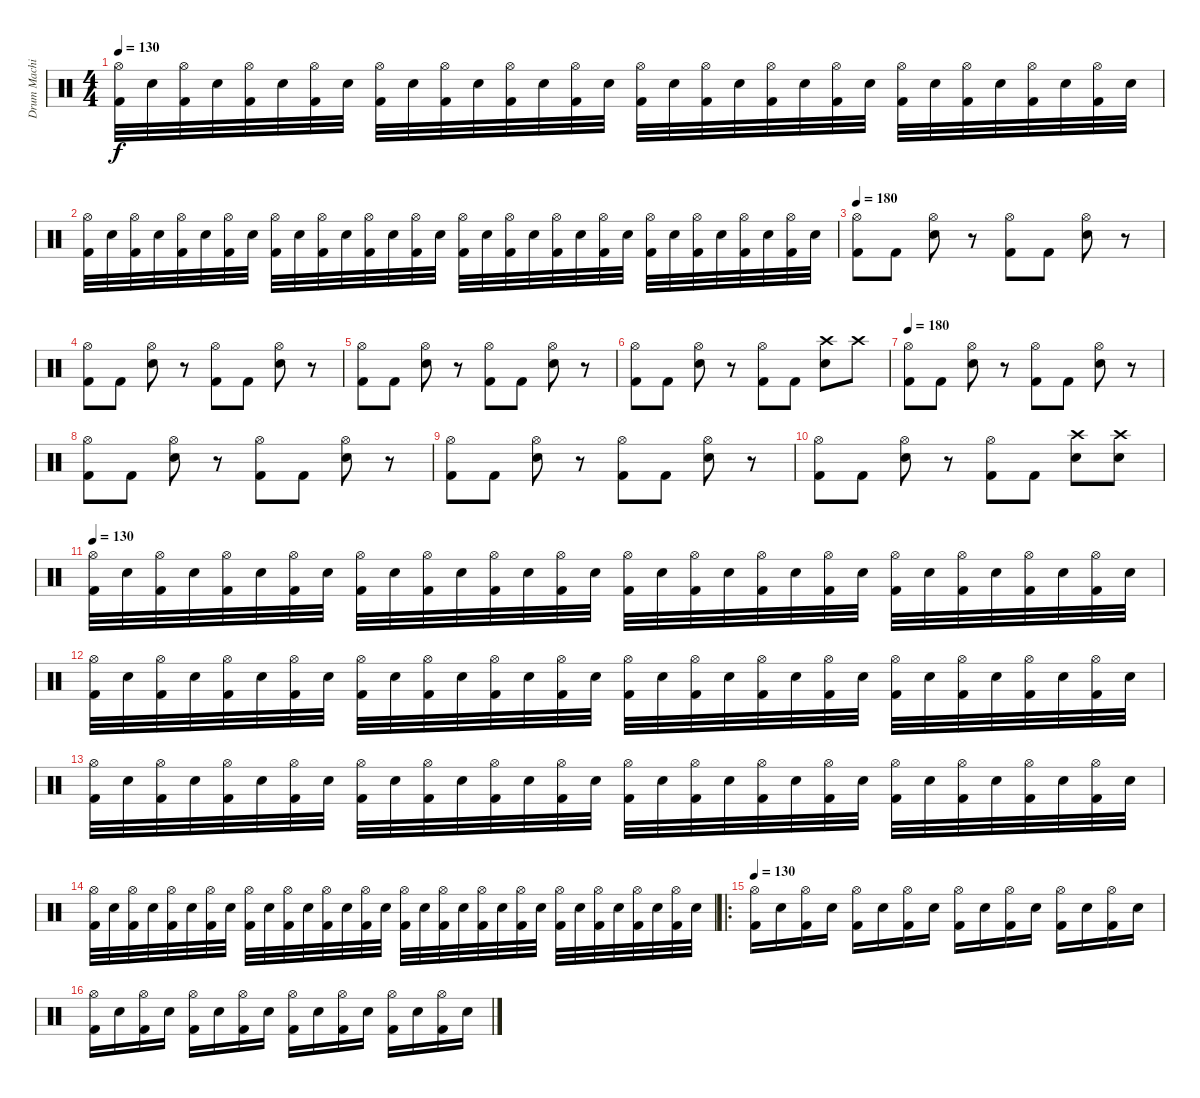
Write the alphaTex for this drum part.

\track ("Drum Machine" "Drum Machi") {instrument percussion}
\staff {score}
\articulation defaults
\ts (4 4)
\tempo 130
\clef neutral
\ks c
("Hi-Hat (open)" "Kick (hit) 2").32{dy f} "Snare (hit) 2".32 ("Hi-Hat (open)" "Kick (hit) 2").32 "Snare (hit) 2".32 ("Hi-Hat (open)" "Kick (hit) 2").32 "Snare (hit) 2".32 ("Hi-Hat (open)" "Kick (hit) 2").32 "Snare (hit) 2".32 ("Hi-Hat (open)" "Kick (hit) 2").32 "Snare (hit) 2".32 ("Hi-Hat (open)" "Kick (hit) 2").32 "Snare (hit) 2".32 ("Hi-Hat (open)" "Kick (hit) 2").32 "Snare (hit) 2".32 ("Hi-Hat (open)" "Kick (hit) 2").32 "Snare (hit) 2".32 ("Hi-Hat (open)" "Kick (hit) 2").32 "Snare (hit) 2".32 ("Hi-Hat (open)" "Kick (hit) 2").32 "Snare (hit) 2".32 ("Hi-Hat (open)" "Kick (hit) 2").32 "Snare (hit) 2".32 ("Hi-Hat (open)" "Kick (hit) 2").32 "Snare (hit) 2".32 ("Hi-Hat (open)" "Kick (hit) 2").32 "Snare (hit) 2".32 ("Hi-Hat (open)" "Kick (hit) 2").32 "Snare (hit) 2".32 ("Hi-Hat (open)" "Kick (hit) 2").32 "Snare (hit) 2".32 ("Hi-Hat (open)" "Kick (hit) 2").32 "Snare (hit) 2".32 |
("Hi-Hat (open)" "Kick (hit) 2").32 "Snare (hit) 2".32 ("Hi-Hat (open)" "Kick (hit) 2").32 "Snare (hit) 2".32 ("Hi-Hat (open)" "Kick (hit) 2").32 "Snare (hit) 2".32 ("Hi-Hat (open)" "Kick (hit) 2").32 "Snare (hit) 2".32 ("Hi-Hat (open)" "Kick (hit) 2").32 "Snare (hit) 2".32 ("Hi-Hat (open)" "Kick (hit) 2").32 "Snare (hit) 2".32 ("Hi-Hat (open)" "Kick (hit) 2").32 "Snare (hit) 2".32 ("Hi-Hat (open)" "Kick (hit) 2").32 "Snare (hit) 2".32 ("Hi-Hat (open)" "Kick (hit) 2").32 "Snare (hit) 2".32 ("Hi-Hat (open)" "Kick (hit) 2").32 "Snare (hit) 2".32 ("Hi-Hat (open)" "Kick (hit) 2").32 "Snare (hit) 2".32 ("Hi-Hat (open)" "Kick (hit) 2").32 "Snare (hit) 2".32 ("Hi-Hat (open)" "Kick (hit) 2").32 "Snare (hit) 2".32 ("Hi-Hat (open)" "Kick (hit) 2").32 "Snare (hit) 2".32 ("Hi-Hat (open)" "Kick (hit) 2").32 "Snare (hit) 2".32 ("Hi-Hat (open)" "Kick (hit) 2").32 "Snare (hit) 2".32 |
\tempo 180
("Hi-Hat (open)" "Kick (hit) 2").8 "Kick (hit) 2".8 ("Hi-Hat (open)" "Snare (hit) 2").8 r.8 ("Hi-Hat (open)" "Kick (hit) 2").8 "Kick (hit) 2".8 ("Hi-Hat (open)" "Snare (hit) 2").8 r.8 |
("Hi-Hat (open)" "Kick (hit) 2").8 "Kick (hit) 2".8 ("Hi-Hat (open)" "Snare (hit) 2").8 r.8 ("Hi-Hat (open)" "Kick (hit) 2").8 "Kick (hit) 2".8 ("Hi-Hat (open)" "Snare (hit) 2").8 r.8 |
("Hi-Hat (open)" "Kick (hit) 2").8 "Kick (hit) 2".8 ("Hi-Hat (open)" "Snare (hit) 2").8 r.8 ("Hi-Hat (open)" "Kick (hit) 2").8 "Kick (hit) 2".8 ("Hi-Hat (open)" "Snare (hit) 2").8 r.8 |
("Hi-Hat (open)" "Kick (hit) 2").8 "Kick (hit) 2".8 ("Hi-Hat (open)" "Snare (hit) 2").8 r.8 ("Hi-Hat (open)" "Kick (hit) 2").8 "Kick (hit) 2".8 ("Crash high (hit)" "Snare (hit) 2").8 "Crash high (hit)".8 |
\tempo 180
("Hi-Hat (open)" "Kick (hit) 2").8 "Kick (hit) 2".8 ("Hi-Hat (open)" "Snare (hit) 2").8 r.8 ("Hi-Hat (open)" "Kick (hit) 2").8 "Kick (hit) 2".8 ("Hi-Hat (open)" "Snare (hit) 2").8 r.8 |
("Hi-Hat (open)" "Kick (hit) 2").8 "Kick (hit) 2".8 ("Hi-Hat (open)" "Snare (hit) 2").8 r.8 ("Hi-Hat (open)" "Kick (hit) 2").8 "Kick (hit) 2".8 ("Hi-Hat (open)" "Snare (hit) 2").8 r.8 |
("Hi-Hat (open)" "Kick (hit) 2").8 "Kick (hit) 2".8 ("Hi-Hat (open)" "Snare (hit) 2").8 r.8 ("Hi-Hat (open)" "Kick (hit) 2").8 "Kick (hit) 2".8 ("Hi-Hat (open)" "Snare (hit) 2").8 r.8 |
("Hi-Hat (open)" "Kick (hit) 2").8 "Kick (hit) 2".8 ("Hi-Hat (open)" "Snare (hit) 2").8 r.8 ("Hi-Hat (open)" "Kick (hit) 2").8 "Kick (hit) 2".8 ("Crash high (hit)" "Snare (hit) 2").8 ("Crash high (hit)" "Snare (hit) 2").8 |
\tempo 130
("Hi-Hat (open)" "Kick (hit) 2").32 "Snare (hit) 2".32 ("Hi-Hat (open)" "Kick (hit) 2").32 "Snare (hit) 2".32 ("Hi-Hat (open)" "Kick (hit) 2").32 "Snare (hit) 2".32 ("Hi-Hat (open)" "Kick (hit) 2").32 "Snare (hit) 2".32 ("Hi-Hat (open)" "Kick (hit) 2").32 "Snare (hit) 2".32 ("Hi-Hat (open)" "Kick (hit) 2").32 "Snare (hit) 2".32 ("Hi-Hat (open)" "Kick (hit) 2").32 "Snare (hit) 2".32 ("Hi-Hat (open)" "Kick (hit) 2").32 "Snare (hit) 2".32 ("Hi-Hat (open)" "Kick (hit) 2").32 "Snare (hit) 2".32 ("Hi-Hat (open)" "Kick (hit) 2").32 "Snare (hit) 2".32 ("Hi-Hat (open)" "Kick (hit) 2").32 "Snare (hit) 2".32 ("Hi-Hat (open)" "Kick (hit) 2").32 "Snare (hit) 2".32 ("Hi-Hat (open)" "Kick (hit) 2").32 "Snare (hit) 2".32 ("Hi-Hat (open)" "Kick (hit) 2").32 "Snare (hit) 2".32 ("Hi-Hat (open)" "Kick (hit) 2").32 "Snare (hit) 2".32 ("Hi-Hat (open)" "Kick (hit) 2").32 "Snare (hit) 2".32 |
("Hi-Hat (open)" "Kick (hit) 2").32 "Snare (hit) 2".32 ("Hi-Hat (open)" "Kick (hit) 2").32 "Snare (hit) 2".32 ("Hi-Hat (open)" "Kick (hit) 2").32 "Snare (hit) 2".32 ("Hi-Hat (open)" "Kick (hit) 2").32 "Snare (hit) 2".32 ("Hi-Hat (open)" "Kick (hit) 2").32 "Snare (hit) 2".32 ("Hi-Hat (open)" "Kick (hit) 2").32 "Snare (hit) 2".32 ("Hi-Hat (open)" "Kick (hit) 2").32 "Snare (hit) 2".32 ("Hi-Hat (open)" "Kick (hit) 2").32 "Snare (hit) 2".32 ("Hi-Hat (open)" "Kick (hit) 2").32 "Snare (hit) 2".32 ("Hi-Hat (open)" "Kick (hit) 2").32 "Snare (hit) 2".32 ("Hi-Hat (open)" "Kick (hit) 2").32 "Snare (hit) 2".32 ("Hi-Hat (open)" "Kick (hit) 2").32 "Snare (hit) 2".32 ("Hi-Hat (open)" "Kick (hit) 2").32 "Snare (hit) 2".32 ("Hi-Hat (open)" "Kick (hit) 2").32 "Snare (hit) 2".32 ("Hi-Hat (open)" "Kick (hit) 2").32 "Snare (hit) 2".32 ("Hi-Hat (open)" "Kick (hit) 2").32 "Snare (hit) 2".32 |
("Hi-Hat (open)" "Kick (hit) 2").32 "Snare (hit) 2".32 ("Hi-Hat (open)" "Kick (hit) 2").32 "Snare (hit) 2".32 ("Hi-Hat (open)" "Kick (hit) 2").32 "Snare (hit) 2".32 ("Hi-Hat (open)" "Kick (hit) 2").32 "Snare (hit) 2".32 ("Hi-Hat (open)" "Kick (hit) 2").32 "Snare (hit) 2".32 ("Hi-Hat (open)" "Kick (hit) 2").32 "Snare (hit) 2".32 ("Hi-Hat (open)" "Kick (hit) 2").32 "Snare (hit) 2".32 ("Hi-Hat (open)" "Kick (hit) 2").32 "Snare (hit) 2".32 ("Hi-Hat (open)" "Kick (hit) 2").32 "Snare (hit) 2".32 ("Hi-Hat (open)" "Kick (hit) 2").32 "Snare (hit) 2".32 ("Hi-Hat (open)" "Kick (hit) 2").32 "Snare (hit) 2".32 ("Hi-Hat (open)" "Kick (hit) 2").32 "Snare (hit) 2".32 ("Hi-Hat (open)" "Kick (hit) 2").32 "Snare (hit) 2".32 ("Hi-Hat (open)" "Kick (hit) 2").32 "Snare (hit) 2".32 ("Hi-Hat (open)" "Kick (hit) 2").32 "Snare (hit) 2".32 ("Hi-Hat (open)" "Kick (hit) 2").32 "Snare (hit) 2".32 |
("Hi-Hat (open)" "Kick (hit) 2").32 "Snare (hit) 2".32 ("Hi-Hat (open)" "Kick (hit) 2").32 "Snare (hit) 2".32 ("Hi-Hat (open)" "Kick (hit) 2").32 "Snare (hit) 2".32 ("Hi-Hat (open)" "Kick (hit) 2").32 "Snare (hit) 2".32 ("Hi-Hat (open)" "Kick (hit) 2").32 "Snare (hit) 2".32 ("Hi-Hat (open)" "Kick (hit) 2").32 "Snare (hit) 2".32 ("Hi-Hat (open)" "Kick (hit) 2").32 "Snare (hit) 2".32 ("Hi-Hat (open)" "Kick (hit) 2").32 "Snare (hit) 2".32 ("Hi-Hat (open)" "Kick (hit) 2").32 "Snare (hit) 2".32 ("Hi-Hat (open)" "Kick (hit) 2").32 "Snare (hit) 2".32 ("Hi-Hat (open)" "Kick (hit) 2").32 "Snare (hit) 2".32 ("Hi-Hat (open)" "Kick (hit) 2").32 "Snare (hit) 2".32 ("Hi-Hat (open)" "Kick (hit) 2").32 "Snare (hit) 2".32 ("Hi-Hat (open)" "Kick (hit) 2").32 "Snare (hit) 2".32 ("Hi-Hat (open)" "Kick (hit) 2").32 "Snare (hit) 2".32 ("Hi-Hat (open)" "Kick (hit) 2").32 "Snare (hit) 2".32 |
\ro
\tempo 130
("Hi-Hat (open)" "Kick (hit) 2").16 "Snare (hit) 2".16 ("Hi-Hat (open)" "Kick (hit) 2").16 "Snare (hit) 2".16 ("Hi-Hat (open)" "Kick (hit) 2").16 "Snare (hit) 2".16 ("Hi-Hat (open)" "Kick (hit) 2").16 "Snare (hit) 2".16 ("Hi-Hat (open)" "Kick (hit) 2").16 "Snare (hit) 2".16 ("Hi-Hat (open)" "Kick (hit) 2").16 "Snare (hit) 2".16 ("Hi-Hat (open)" "Kick (hit) 2").16 "Snare (hit) 2".16 ("Hi-Hat (open)" "Kick (hit) 2").16 "Snare (hit) 2".16 |
("Hi-Hat (open)" "Kick (hit) 2").16 "Snare (hit) 2".16 ("Hi-Hat (open)" "Kick (hit) 2").16 "Snare (hit) 2".16 ("Hi-Hat (open)" "Kick (hit) 2").16 "Snare (hit) 2".16 ("Hi-Hat (open)" "Kick (hit) 2").16 "Snare (hit) 2".16 ("Hi-Hat (open)" "Kick (hit) 2").16 "Snare (hit) 2".16 ("Hi-Hat (open)" "Kick (hit) 2").16 "Snare (hit) 2".16 ("Hi-Hat (open)" "Kick (hit) 2").16 "Snare (hit) 2".16 ("Hi-Hat (open)" "Kick (hit) 2").16 "Snare (hit) 2".16
